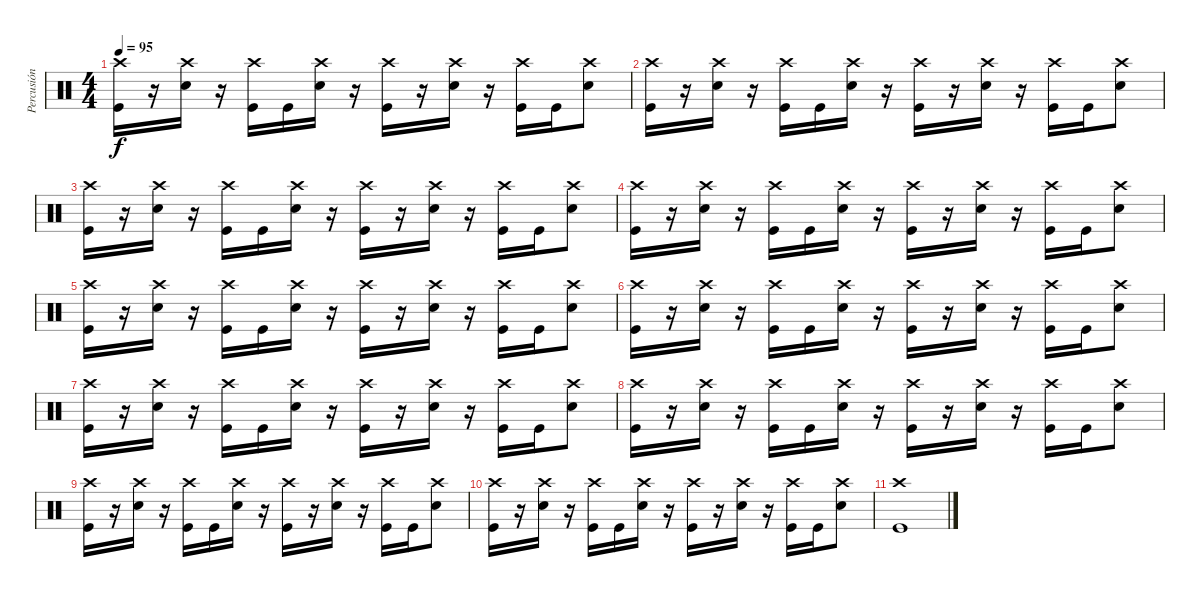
\track ("Percusión" "Percusión") {instrument percussion}
\staff {score}
\articulation defaults
\ts (4 4)
\tempo 95
\clef neutral
\ks c
("Kick (hit)" "Crash high (hit)").16{dy f} r.16 ("Snare (hit) 2" "Crash high (hit)").16 r.16 ("Kick (hit)" "Crash high (hit)").16 "Kick (hit)".16 ("Snare (hit) 2" "Crash high (hit)").16 r.16 ("Kick (hit)" "Crash high (hit)").16 r.16 ("Snare (hit) 2" "Crash high (hit)").16 r.16 ("Kick (hit)" "Crash high (hit)").16 "Kick (hit)".16 ("Snare (hit) 2" "Crash high (hit)").8 |
("Kick (hit)" "Crash high (hit)").16 r.16 ("Snare (hit) 2" "Crash high (hit)").16 r.16 ("Kick (hit)" "Crash high (hit)").16 "Kick (hit)".16 ("Snare (hit) 2" "Crash high (hit)").16 r.16 ("Kick (hit)" "Crash high (hit)").16 r.16 ("Snare (hit) 2" "Crash high (hit)").16 r.16 ("Kick (hit)" "Crash high (hit)").16 "Kick (hit)".16 ("Snare (hit) 2" "Crash high (hit)").8 |
("Kick (hit)" "Crash high (hit)").16 r.16 ("Snare (hit) 2" "Crash high (hit)").16 r.16 ("Kick (hit)" "Crash high (hit)").16 "Kick (hit)".16 ("Snare (hit) 2" "Crash high (hit)").16 r.16 ("Kick (hit)" "Crash high (hit)").16 r.16 ("Snare (hit) 2" "Crash high (hit)").16 r.16 ("Kick (hit)" "Crash high (hit)").16 "Kick (hit)".16 ("Snare (hit) 2" "Crash high (hit)").8 |
("Kick (hit)" "Crash high (hit)").16{volume 7} r.16 ("Snare (hit) 2" "Crash high (hit)").16 r.16 ("Kick (hit)" "Crash high (hit)").16 "Kick (hit)".16 ("Snare (hit) 2" "Crash high (hit)").16 r.16 ("Kick (hit)" "Crash high (hit)").16 r.16 ("Snare (hit) 2" "Crash high (hit)").16 r.16 ("Kick (hit)" "Crash high (hit)").16 "Kick (hit)".16 ("Snare (hit) 2" "Crash high (hit)").8 |
("Kick (hit)" "Crash high (hit)").16 r.16 ("Snare (hit) 2" "Crash high (hit)").16 r.16 ("Kick (hit)" "Crash high (hit)").16 "Kick (hit)".16 ("Snare (hit) 2" "Crash high (hit)").16 r.16 ("Kick (hit)" "Crash high (hit)").16 r.16 ("Snare (hit) 2" "Crash high (hit)").16 r.16 ("Kick (hit)" "Crash high (hit)").16 "Kick (hit)".16 ("Snare (hit) 2" "Crash high (hit)").8 |
("Kick (hit)" "Crash high (hit)").16 r.16 ("Snare (hit) 2" "Crash high (hit)").16 r.16 ("Kick (hit)" "Crash high (hit)").16 "Kick (hit)".16 ("Snare (hit) 2" "Crash high (hit)").16 r.16 ("Kick (hit)" "Crash high (hit)").16 r.16 ("Snare (hit) 2" "Crash high (hit)").16 r.16 ("Kick (hit)" "Crash high (hit)").16 "Kick (hit)".16 ("Snare (hit) 2" "Crash high (hit)").8 |
("Kick (hit)" "Crash high (hit)").16 r.16 ("Snare (hit) 2" "Crash high (hit)").16 r.16 ("Kick (hit)" "Crash high (hit)").16 "Kick (hit)".16 ("Snare (hit) 2" "Crash high (hit)").16 r.16 ("Kick (hit)" "Crash high (hit)").16{volume 1} r.16 ("Snare (hit) 2" "Crash high (hit)").16 r.16 ("Kick (hit)" "Crash high (hit)").16 "Kick (hit)".16 ("Snare (hit) 2" "Crash high (hit)").8 |
("Kick (hit)" "Crash high (hit)").16 r.16 ("Snare (hit) 2" "Crash high (hit)").16 r.16 ("Kick (hit)" "Crash high (hit)").16 "Kick (hit)".16 ("Snare (hit) 2" "Crash high (hit)").16 r.16 ("Kick (hit)" "Crash high (hit)").16 r.16 ("Snare (hit) 2" "Crash high (hit)").16 r.16 ("Kick (hit)" "Crash high (hit)").16 "Kick (hit)".16 ("Snare (hit) 2" "Crash high (hit)").8 |
("Kick (hit)" "Crash high (hit)").16 r.16 ("Snare (hit) 2" "Crash high (hit)").16 r.16 ("Kick (hit)" "Crash high (hit)").16 "Kick (hit)".16 ("Snare (hit) 2" "Crash high (hit)").16 r.16 ("Kick (hit)" "Crash high (hit)").16 r.16 ("Snare (hit) 2" "Crash high (hit)").16 r.16 ("Kick (hit)" "Crash high (hit)").16 "Kick (hit)".16 ("Snare (hit) 2" "Crash high (hit)").8 |
("Kick (hit)" "Crash high (hit)").16 r.16 ("Snare (hit) 2" "Crash high (hit)").16 r.16 ("Kick (hit)" "Crash high (hit)").16 "Kick (hit)".16 ("Snare (hit) 2" "Crash high (hit)").16 r.16 ("Kick (hit)" "Crash high (hit)").16 r.16 ("Snare (hit) 2" "Crash high (hit)").16 r.16 ("Kick (hit)" "Crash high (hit)").16 "Kick (hit)".16 ("Snare (hit) 2" "Crash high (hit)").8 |
("Kick (hit)" "Crash high (hit)").1
